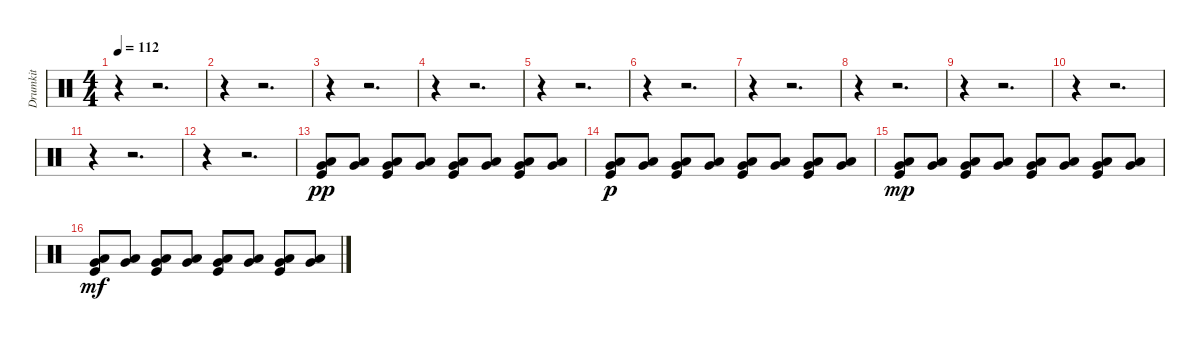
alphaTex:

\track ("Drumkit" "Drumkit") {instrument percussion}
\staff {score}
\articulation defaults
\ts (4 4)
\tempo 112
\clef neutral
\ks c
r.4{dy pp} r.2{d} |
r.4 r.2{d} |
r.4 r.2{d} |
r.4 r.2{d} |
r.4 r.2{d} |
r.4 r.2{d} |
r.4 r.2{d} |
r.4 r.2{d} |
r.4 r.2{d} |
r.4 r.2{d} |
r.4 r.2{d} |
r.4 r.2{d} |
("Very Low Tom (hit)" "Low Tom (hit)" "Kick (hit)").8 ("Very Low Tom (hit)" "Low Tom (hit)").8 ("Very Low Tom (hit)" "Low Tom (hit)" "Kick (hit)").8 ("Very Low Tom (hit)" "Low Tom (hit)").8 ("Very Low Tom (hit)" "Low Tom (hit)" "Kick (hit)").8 ("Very Low Tom (hit)" "Low Tom (hit)").8 ("Very Low Tom (hit)" "Low Tom (hit)" "Kick (hit)").8 ("Very Low Tom (hit)" "Low Tom (hit)").8 |
("Very Low Tom (hit)" "Low Tom (hit)" "Kick (hit)").8{dy p} ("Very Low Tom (hit)" "Low Tom (hit)").8 ("Very Low Tom (hit)" "Low Tom (hit)" "Kick (hit)").8 ("Very Low Tom (hit)" "Low Tom (hit)").8 ("Very Low Tom (hit)" "Low Tom (hit)" "Kick (hit)").8 ("Very Low Tom (hit)" "Low Tom (hit)").8 ("Very Low Tom (hit)" "Low Tom (hit)" "Kick (hit)").8 ("Very Low Tom (hit)" "Low Tom (hit)").8 |
("Very Low Tom (hit)" "Low Tom (hit)" "Kick (hit)").8{dy mp} ("Very Low Tom (hit)" "Low Tom (hit)").8 ("Very Low Tom (hit)" "Low Tom (hit)" "Kick (hit)").8 ("Very Low Tom (hit)" "Low Tom (hit)").8 ("Very Low Tom (hit)" "Low Tom (hit)" "Kick (hit)").8 ("Very Low Tom (hit)" "Low Tom (hit)").8 ("Very Low Tom (hit)" "Low Tom (hit)" "Kick (hit)").8 ("Very Low Tom (hit)" "Low Tom (hit)").8 |
("Very Low Tom (hit)" "Low Tom (hit)" "Kick (hit)").8{dy mf} ("Very Low Tom (hit)" "Low Tom (hit)").8 ("Very Low Tom (hit)" "Low Tom (hit)" "Kick (hit)").8 ("Very Low Tom (hit)" "Low Tom (hit)").8 ("Very Low Tom (hit)" "Low Tom (hit)" "Kick (hit)").8 ("Very Low Tom (hit)" "Low Tom (hit)").8 ("Very Low Tom (hit)" "Low Tom (hit)" "Kick (hit)").8 ("Very Low Tom (hit)" "Low Tom (hit)").8
